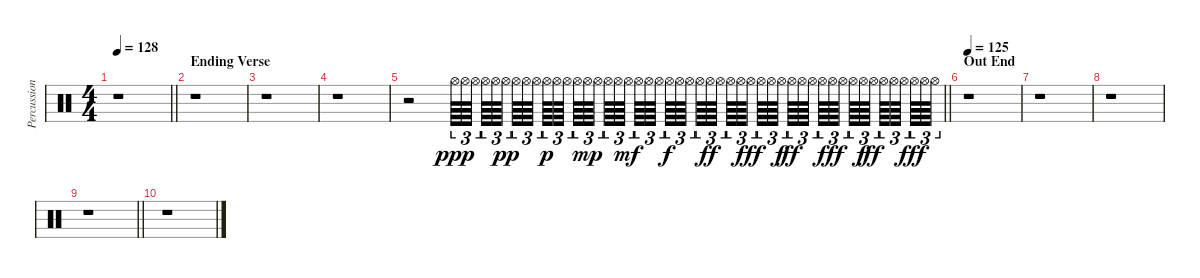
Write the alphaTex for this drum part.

\track ("Percussion" "Percussion") {instrument percussion}
\staff {score}
\articulation defaults
\ts (4 4)
\tempo 128
\clef neutral
\barLineRight lightlight
\ks c
r.1{dy fff} |
\section ("" "Ending Verse")
r.1 |
r.1 |
r.1 |
\barLineRight lightlight
r.2 "Hi-Hat (open)".64{tu (3 2) dy ppp} "Hi-Hat (open)".64{tu (3 2)} "Hi-Hat (open)".64{tu (3 2)} "Hi-Hat (open)".64{tu (3 2)} "Hi-Hat (open)".64{tu (3 2)} "Hi-Hat (open)".64{tu (3 2) dy pp} "Hi-Hat (open)".64{tu (3 2)} "Hi-Hat (open)".64{tu (3 2)} "Hi-Hat (open)".64{tu (3 2)} "Hi-Hat (open)".64{tu (3 2) dy p} "Hi-Hat (open)".64{tu (3 2)} "Hi-Hat (open)".64{tu (3 2)} "Hi-Hat (open)".64{tu (3 2)} "Hi-Hat (open)".64{tu (3 2) dy mp} "Hi-Hat (open)".64{tu (3 2)} "Hi-Hat (open)".64{tu (3 2)} "Hi-Hat (open)".64{tu (3 2)} "Hi-Hat (open)".64{tu (3 2) dy mf} "Hi-Hat (open)".64{tu (3 2)} "Hi-Hat (open)".64{tu (3 2)} "Hi-Hat (open)".64{tu (3 2)} "Hi-Hat (open)".64{tu (3 2) dy f} "Hi-Hat (open)".64{tu (3 2)} "Hi-Hat (open)".64{tu (3 2)} "Hi-Hat (open)".64{tu (3 2)} "Hi-Hat (open)".64{tu (3 2) dy ff} "Hi-Hat (open)".64{tu (3 2)} "Hi-Hat (open)".64{tu (3 2)} "Hi-Hat (open)".64{tu (3 2)} "Hi-Hat (open)".64{tu (3 2) dy fff} "Hi-Hat (open)".64{tu (3 2)} "Hi-Hat (open)".64{tu (3 2)} "Hi-Hat (open)".64{tu (3 2) dy f} "Hi-Hat (open)".64{tu (3 2) dy ff} "Hi-Hat (open)".64{tu (3 2)} "Hi-Hat (open)".64{tu (3 2)} "Hi-Hat (open)".64{tu (3 2)} "Hi-Hat (open)".64{tu (3 2) dy fff} "Hi-Hat (open)".64{tu (3 2)} "Hi-Hat (open)".64{tu (3 2)} "Hi-Hat (open)".64{tu (3 2) dy f} "Hi-Hat (open)".64{tu (3 2) dy ff} "Hi-Hat (open)".64{tu (3 2)} "Hi-Hat (open)".64{tu (3 2)} "Hi-Hat (open)".64{tu (3 2)} "Hi-Hat (open)".64{tu (3 2) dy fff} "Hi-Hat (open)".64{tu (3 2)} "Hi-Hat (open)".64{tu (3 2)} |
\section ("" "Out End")
\tempo 125
r.1 |
r.1 |
r.1 |
\barLineRight lightlight
r.1 |
r.1
